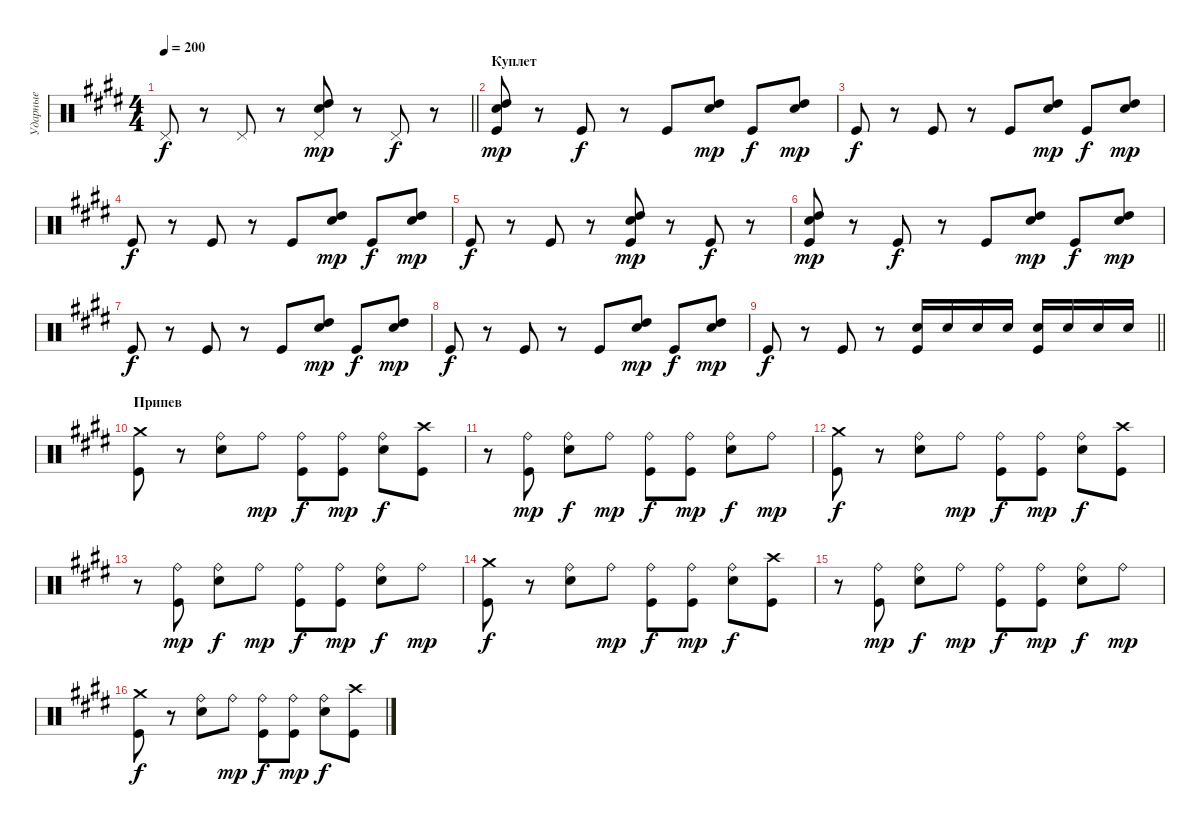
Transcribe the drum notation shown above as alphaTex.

\track ("Ударные" "Ударные") {instrument percussion}
\staff {score}
\articulation defaults
\ts (4 4)
\tempo 200
\clef neutral
\barLineRight lightlight
\ks c#minor "Pedal Hi-Hat (hit)".8{dy f}
r.8 "Pedal Hi-Hat (hit)".8 r.8 ("High Tom (hit)" "Electric Snare (hit)" "Pedal Hi-Hat (hit)").8{dy mp} r.8 "Pedal Hi-Hat (hit)".8{dy f} r.8 |
\section ("" "Куплет")
("High Tom (hit)" "Electric Snare (hit)" "Kick (hit)").8{dy mp} r.8 "Kick (hit)".8{dy f} r.8 "Kick (hit)".8 ("High Tom (hit)" "Electric Snare (hit)").8{dy mp} "Kick (hit)".8{dy f} ("High Tom (hit)" "Electric Snare (hit)").8{dy mp} |
"Kick (hit)".8{dy f} r.8 "Kick (hit)".8 r.8 "Kick (hit)".8 ("High Tom (hit)" "Electric Snare (hit)").8{dy mp} "Kick (hit)".8{dy f} ("High Tom (hit)" "Electric Snare (hit)").8{dy mp} |
"Kick (hit)".8{dy f} r.8 "Kick (hit)".8 r.8 "Kick (hit)".8 ("High Tom (hit)" "Electric Snare (hit)").8{dy mp} "Kick (hit)".8{dy f} ("High Tom (hit)" "Electric Snare (hit)").8{dy mp} |
"Kick (hit)".8{dy f} r.8 "Kick (hit)".8 r.8 ("High Tom (hit)" "Electric Snare (hit)" "Kick (hit)").8{dy mp} r.8 "Kick (hit)".8{dy f} r.8 |
("High Tom (hit)" "Electric Snare (hit)" "Kick (hit)").8{dy mp} r.8 "Kick (hit)".8{dy f} r.8 "Kick (hit)".8 ("High Tom (hit)" "Electric Snare (hit)").8{dy mp} "Kick (hit)".8{dy f} ("High Tom (hit)" "Electric Snare (hit)").8{dy mp} |
"Kick (hit)".8{dy f} r.8 "Kick (hit)".8 r.8 "Kick (hit)".8 ("High Tom (hit)" "Electric Snare (hit)").8{dy mp} "Kick (hit)".8{dy f} ("High Tom (hit)" "Electric Snare (hit)").8{dy mp} |
"Kick (hit)".8{dy f} r.8 "Kick (hit)".8 r.8 "Kick (hit)".8 ("High Tom (hit)" "Electric Snare (hit)").8{dy mp} "Kick (hit)".8{dy f} ("High Tom (hit)" "Electric Snare (hit)").8{dy mp} |
\barLineRight lightlight "Kick (hit)".8{dy f}
r.8 "Kick (hit)".8 r.8 ("Electric Snare (hit)" "Kick (hit)").16 "Electric Snare (hit)".16 "Electric Snare (hit)".16 "Electric Snare (hit)".16 ("Electric Snare (hit)" "Kick (hit)").16 "Electric Snare (hit)".16 "Electric Snare (hit)".16 "Electric Snare (hit)".16 |
\section ("" "Припев")
("Crash medium (hit)" "Kick (hit)").8 r.8 ("Ride (bell)" "Electric Snare (hit)").8 "Ride (bell)".8{dy mp} ("Ride (bell)" "Kick (hit)").8{dy f} ("Ride (bell)" "Kick (hit)").8{dy mp} ("Ride (bell)" "Electric Snare (hit)").8{dy f} ("Crash high (hit)" "Kick (hit)").8 |
r.8 ("Ride (bell)" "Kick (hit)").8{dy mp} ("Ride (bell)" "Electric Snare (hit)").8{dy f} "Ride (bell)".8{dy mp} ("Ride (bell)" "Kick (hit)").8{dy f} ("Ride (bell)" "Kick (hit)").8{dy mp} ("Ride (bell)" "Electric Snare (hit)").8{dy f} "Ride (bell)".8{dy mp} |
("Crash medium (hit)" "Kick (hit)").8{dy f} r.8 ("Ride (bell)" "Electric Snare (hit)").8 "Ride (bell)".8{dy mp} ("Ride (bell)" "Kick (hit)").8{dy f} ("Ride (bell)" "Kick (hit)").8{dy mp} ("Ride (bell)" "Electric Snare (hit)").8{dy f} ("Crash high (hit)" "Kick (hit)").8 |
r.8 ("Ride (bell)" "Kick (hit)").8{dy mp} ("Ride (bell)" "Electric Snare (hit)").8{dy f} "Ride (bell)".8{dy mp} ("Ride (bell)" "Kick (hit)").8{dy f} ("Ride (bell)" "Kick (hit)").8{dy mp} ("Ride (bell)" "Electric Snare (hit)").8{dy f} "Ride (bell)".8{dy mp} |
("Crash medium (hit)" "Kick (hit)").8{dy f} r.8 ("Ride (bell)" "Electric Snare (hit)").8 "Ride (bell)".8{dy mp} ("Ride (bell)" "Kick (hit)").8{dy f} ("Ride (bell)" "Kick (hit)").8{dy mp} ("Ride (bell)" "Electric Snare (hit)").8{dy f} ("Crash high (hit)" "Kick (hit)").8 |
r.8 ("Ride (bell)" "Kick (hit)").8{dy mp} ("Ride (bell)" "Electric Snare (hit)").8{dy f} "Ride (bell)".8{dy mp} ("Ride (bell)" "Kick (hit)").8{dy f} ("Ride (bell)" "Kick (hit)").8{dy mp} ("Ride (bell)" "Electric Snare (hit)").8{dy f} "Ride (bell)".8{dy mp} |
("Crash medium (hit)" "Kick (hit)").8{dy f} r.8 ("Ride (bell)" "Electric Snare (hit)").8 "Ride (bell)".8{dy mp} ("Ride (bell)" "Kick (hit)").8{dy f} ("Ride (bell)" "Kick (hit)").8{dy mp} ("Ride (bell)" "Electric Snare (hit)").8{dy f} ("Crash high (hit)" "Kick (hit)").8
